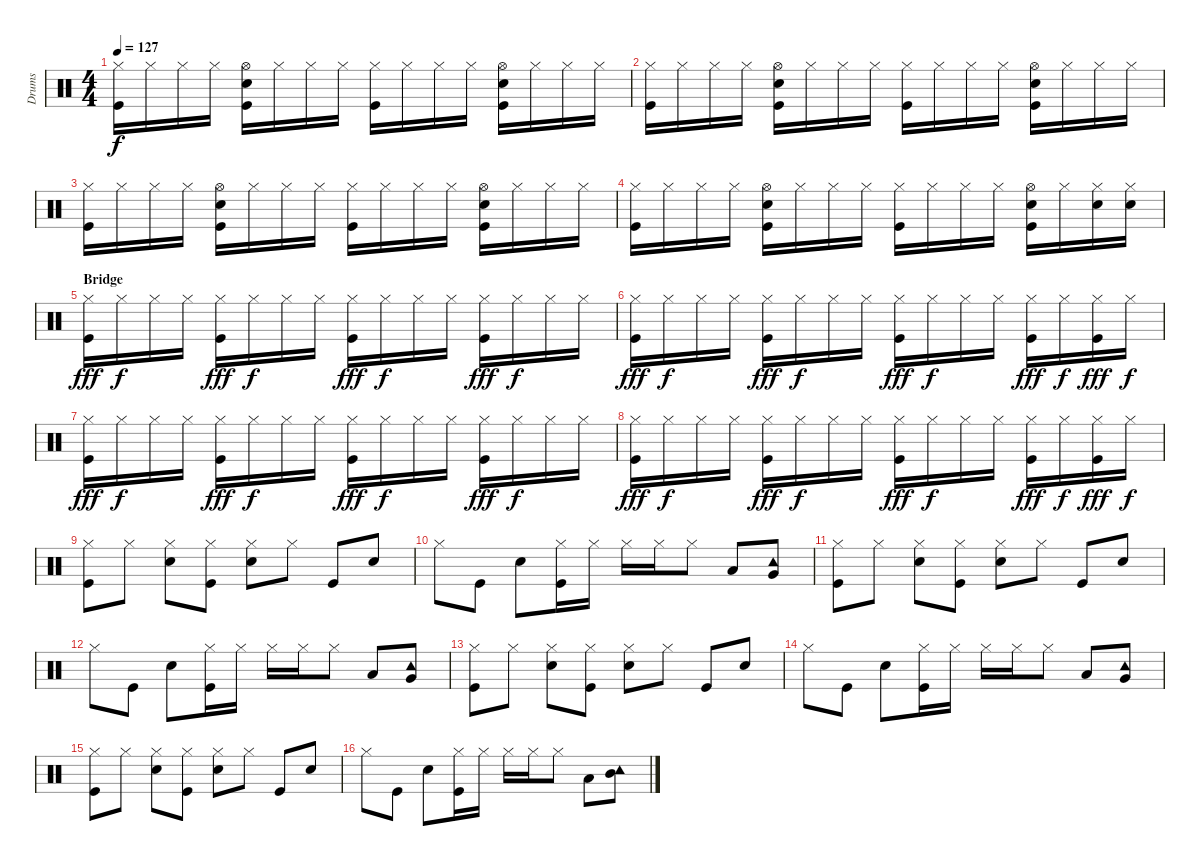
\track ("Drums" "Drums") {instrument percussion}
\staff {score}
\articulation defaults
\ts (4 4)
\tempo 127
\clef neutral
\ks c
("Hi-Hat (closed)" "Kick (hit)").16{dy f} "Hi-Hat (closed)".16 "Hi-Hat (closed)".16 "Hi-Hat (closed)".16 ("Hi-Hat (open)" "Snare (hit) 2" "Kick (hit)").16 "Hi-Hat (closed)".16 "Hi-Hat (closed)".16 "Hi-Hat (closed)".16 ("Hi-Hat (closed)" "Kick (hit)").16 "Hi-Hat (closed)".16 "Hi-Hat (closed)".16 "Hi-Hat (closed)".16 ("Hi-Hat (open)" "Snare (hit) 2" "Kick (hit)").16 "Hi-Hat (closed)".16 "Hi-Hat (closed)".16 "Hi-Hat (closed)".16 |
("Hi-Hat (closed)" "Kick (hit)").16 "Hi-Hat (closed)".16 "Hi-Hat (closed)".16 "Hi-Hat (closed)".16 ("Hi-Hat (open)" "Snare (hit) 2" "Kick (hit)").16 "Hi-Hat (closed)".16 "Hi-Hat (closed)".16 "Hi-Hat (closed)".16 ("Hi-Hat (closed)" "Kick (hit)").16 "Hi-Hat (closed)".16 "Hi-Hat (closed)".16 "Hi-Hat (closed)".16 ("Hi-Hat (open)" "Snare (hit) 2" "Kick (hit)").16 "Hi-Hat (closed)".16 "Hi-Hat (closed)".16 "Hi-Hat (closed)".16 |
("Hi-Hat (closed)" "Kick (hit)").16 "Hi-Hat (closed)".16 "Hi-Hat (closed)".16 "Hi-Hat (closed)".16 ("Hi-Hat (open)" "Snare (hit) 2" "Kick (hit)").16 "Hi-Hat (closed)".16 "Hi-Hat (closed)".16 "Hi-Hat (closed)".16 ("Hi-Hat (closed)" "Kick (hit)").16 "Hi-Hat (closed)".16 "Hi-Hat (closed)".16 "Hi-Hat (closed)".16 ("Hi-Hat (open)" "Snare (hit) 2" "Kick (hit)").16 "Hi-Hat (closed)".16 "Hi-Hat (closed)".16 "Hi-Hat (closed)".16 |
("Hi-Hat (closed)" "Kick (hit)").16 "Hi-Hat (closed)".16 "Hi-Hat (closed)".16 "Hi-Hat (closed)".16 ("Hi-Hat (open)" "Snare (hit) 2" "Kick (hit)").16 "Hi-Hat (closed)".16 "Hi-Hat (closed)".16 "Hi-Hat (closed)".16 ("Hi-Hat (closed)" "Kick (hit)").16 "Hi-Hat (closed)".16 "Hi-Hat (closed)".16 "Hi-Hat (closed)".16 ("Hi-Hat (open)" "Snare (hit) 2" "Kick (hit)").16 "Hi-Hat (closed)".16 ("Hi-Hat (closed)" "Snare (hit) 2").16 ("Hi-Hat (closed)" "Snare (hit) 2").16 |
\section ("" "Bridge")
("Hi-Hat (closed)" "Kick (hit)").16{dy fff} "Hi-Hat (closed)".16{dy f} "Hi-Hat (closed)".16 "Hi-Hat (closed)".16 ("Hi-Hat (closed)" "Kick (hit)").16{dy fff} "Hi-Hat (closed)".16{dy f} "Hi-Hat (closed)".16 "Hi-Hat (closed)".16 ("Hi-Hat (closed)" "Kick (hit)").16{dy fff} "Hi-Hat (closed)".16{dy f} "Hi-Hat (closed)".16 "Hi-Hat (closed)".16 ("Hi-Hat (closed)" "Kick (hit)").16{dy fff} "Hi-Hat (closed)".16{dy f} "Hi-Hat (closed)".16 "Hi-Hat (closed)".16 |
("Hi-Hat (closed)" "Kick (hit)").16{dy fff} "Hi-Hat (closed)".16{dy f} "Hi-Hat (closed)".16 "Hi-Hat (closed)".16 ("Hi-Hat (closed)" "Kick (hit)").16{dy fff} "Hi-Hat (closed)".16{dy f} "Hi-Hat (closed)".16 "Hi-Hat (closed)".16 ("Hi-Hat (closed)" "Kick (hit)").16{dy fff} "Hi-Hat (closed)".16{dy f} "Hi-Hat (closed)".16 "Hi-Hat (closed)".16 ("Hi-Hat (closed)" "Kick (hit)").16{dy fff} "Hi-Hat (closed)".16{dy f} ("Hi-Hat (closed)" "Kick (hit)").16{dy fff} "Hi-Hat (closed)".16{dy f} |
("Hi-Hat (closed)" "Kick (hit)").16{dy fff} "Hi-Hat (closed)".16{dy f} "Hi-Hat (closed)".16 "Hi-Hat (closed)".16 ("Hi-Hat (closed)" "Kick (hit)").16{dy fff} "Hi-Hat (closed)".16{dy f} "Hi-Hat (closed)".16 "Hi-Hat (closed)".16 ("Hi-Hat (closed)" "Kick (hit)").16{dy fff} "Hi-Hat (closed)".16{dy f} "Hi-Hat (closed)".16 "Hi-Hat (closed)".16 ("Hi-Hat (closed)" "Kick (hit)").16{dy fff} "Hi-Hat (closed)".16{dy f} "Hi-Hat (closed)".16 "Hi-Hat (closed)".16 |
("Hi-Hat (closed)" "Kick (hit)").16{dy fff} "Hi-Hat (closed)".16{dy f} "Hi-Hat (closed)".16 "Hi-Hat (closed)".16 ("Hi-Hat (closed)" "Kick (hit)").16{dy fff} "Hi-Hat (closed)".16{dy f} "Hi-Hat (closed)".16 "Hi-Hat (closed)".16 ("Hi-Hat (closed)" "Kick (hit)").16{dy fff} "Hi-Hat (closed)".16{dy f} "Hi-Hat (closed)".16 "Hi-Hat (closed)".16 ("Hi-Hat (closed)" "Kick (hit)").16{dy fff} "Hi-Hat (closed)".16{dy f} ("Hi-Hat (closed)" "Kick (hit)").16{dy fff} "Hi-Hat (closed)".16{dy f} |
("Hi-Hat (closed)" "Kick (hit)").8 "Hi-Hat (closed)".8 ("Hi-Hat (closed)" "Snare (hit) 2").8 ("Hi-Hat (closed)" "Kick (hit)").8 ("Hi-Hat (closed)" "Snare (hit) 2").8 "Hi-Hat (closed)".8 "Kick (hit)".8 "Snare (hit) 2".8 |
"Hi-Hat (closed)".8 "Kick (hit)".8 "Snare (hit) 2".8 ("Hi-Hat (closed)" "Kick (hit)").16 "Hi-Hat (closed)".16 "Hi-Hat (closed)".16 "Hi-Hat (closed)".16 "Hi-Hat (closed)".8 "Low Tom (hit)".8 ("Tambourine (hit)" "Very Low Tom (hit)").8 |
("Hi-Hat (closed)" "Kick (hit)").8 "Hi-Hat (closed)".8 ("Hi-Hat (closed)" "Snare (hit) 2").8 ("Hi-Hat (closed)" "Kick (hit)").8 ("Hi-Hat (closed)" "Snare (hit) 2").8 "Hi-Hat (closed)".8 "Kick (hit)".8 "Snare (hit) 2".8 |
"Hi-Hat (closed)".8 "Kick (hit)".8 "Snare (hit) 2".8 ("Hi-Hat (closed)" "Kick (hit)").16 "Hi-Hat (closed)".16 "Hi-Hat (closed)".16 "Hi-Hat (closed)".16 "Hi-Hat (closed)".8 "Low Tom (hit)".8 ("Tambourine (hit)" "Very Low Tom (hit)").8 |
("Hi-Hat (closed)" "Kick (hit)").8 "Hi-Hat (closed)".8 ("Hi-Hat (closed)" "Snare (hit) 2").8 ("Hi-Hat (closed)" "Kick (hit)").8 ("Hi-Hat (closed)" "Snare (hit) 2").8 "Hi-Hat (closed)".8 "Kick (hit)".8 "Snare (hit) 2".8 |
"Hi-Hat (closed)".8 "Kick (hit)".8 "Snare (hit) 2".8 ("Hi-Hat (closed)" "Kick (hit)").16 "Hi-Hat (closed)".16 "Hi-Hat (closed)".16 "Hi-Hat (closed)".16 "Hi-Hat (closed)".8 "Low Tom (hit)".8 ("Tambourine (hit)" "Very Low Tom (hit)").8 |
("Hi-Hat (closed)" "Kick (hit)").8 "Hi-Hat (closed)".8 ("Hi-Hat (closed)" "Snare (hit) 2").8 ("Hi-Hat (closed)" "Kick (hit)").8 ("Hi-Hat (closed)" "Snare (hit) 2").8 "Hi-Hat (closed)".8 "Kick (hit)".8 "Snare (hit) 2".8 |
"Hi-Hat (closed)".8 "Kick (hit)".8 "Snare (hit) 2".8 ("Hi-Hat (closed)" "Kick (hit)").16 "Hi-Hat (closed)".16 "Hi-Hat (closed)".16 "Hi-Hat (closed)".16 "Hi-Hat (closed)".8 "Low Tom (hit)".8 ("Tambourine (hit)" "Mid Tom (hit)").8
